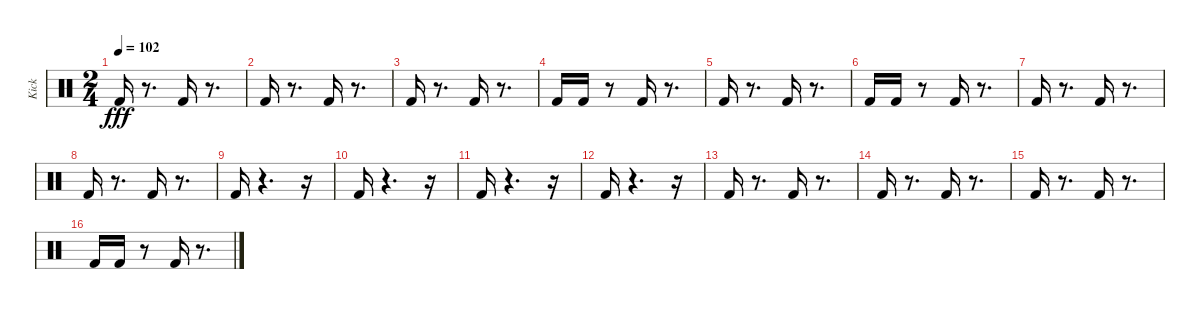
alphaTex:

\track ("Kick" "Kick") {instrument percussion}
\staff {score}
\articulation defaults
\ts (2 4)
\tempo 102
\clef neutral
\ks c "Kick (hit) 2".16{dy fff}
r.8{d} "Kick (hit) 2".16 r.8{d} |
"Kick (hit) 2".16 r.8{d} "Kick (hit) 2".16 r.8{d} |
"Kick (hit) 2".16 r.8{d} "Kick (hit) 2".16 r.8{d} |
"Kick (hit) 2".16 "Kick (hit) 2".16 r.8 "Kick (hit) 2".16 r.8{d} |
"Kick (hit) 2".16 r.8{d} "Kick (hit) 2".16 r.8{d} |
"Kick (hit) 2".16 "Kick (hit) 2".16 r.8 "Kick (hit) 2".16 r.8{d} |
"Kick (hit) 2".16 r.8{d} "Kick (hit) 2".16 r.8{d} |
"Kick (hit) 2".16 r.8{d} "Kick (hit) 2".16 r.8{d} |
"Kick (hit) 2".16 r.4{d} r.16 |
"Kick (hit) 2".16 r.4{d} r.16 |
"Kick (hit) 2".16 r.4{d} r.16 |
"Kick (hit) 2".16 r.4{d} r.16 |
"Kick (hit) 2".16 r.8{d} "Kick (hit) 2".16 r.8{d} |
"Kick (hit) 2".16 r.8{d} "Kick (hit) 2".16 r.8{d} |
"Kick (hit) 2".16 r.8{d} "Kick (hit) 2".16 r.8{d} |
"Kick (hit) 2".16 "Kick (hit) 2".16 r.8 "Kick (hit) 2".16 r.8{d}
